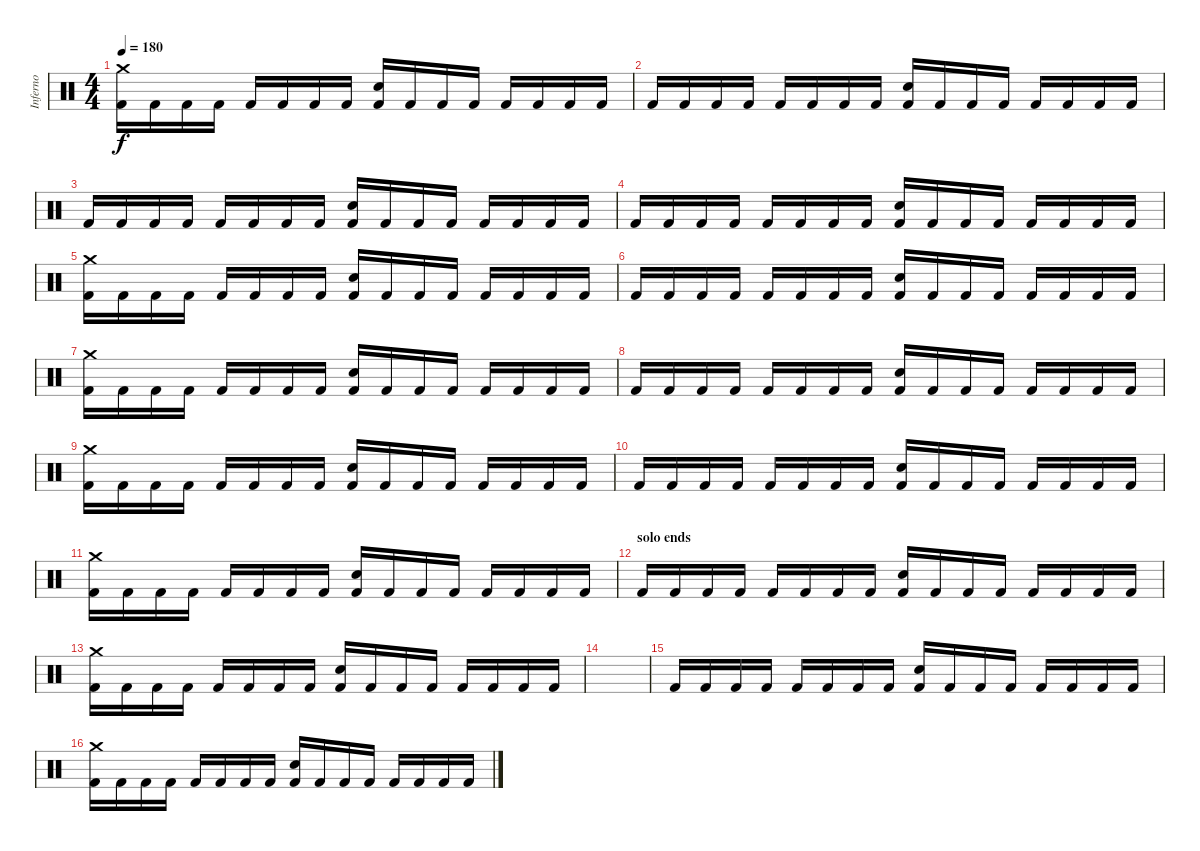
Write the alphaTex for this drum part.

\track ("Inferno" "Inferno") {instrument percussion}
\staff {score}
\articulation defaults
\ts (4 4)
\tempo 180
\clef neutral
\ks c
("Crash medium (hit)" "Kick (hit) 2").16{dy f} "Kick (hit) 2".16 "Kick (hit) 2".16 "Kick (hit) 2".16 "Kick (hit) 2".16 "Kick (hit) 2".16 "Kick (hit) 2".16 "Kick (hit) 2".16 ("Snare (hit) 2" "Kick (hit) 2").16 "Kick (hit) 2".16 "Kick (hit) 2".16 "Kick (hit) 2".16 "Kick (hit) 2".16 "Kick (hit) 2".16 "Kick (hit) 2".16 "Kick (hit) 2".16 |
"Kick (hit) 2".16 "Kick (hit) 2".16 "Kick (hit) 2".16 "Kick (hit) 2".16 "Kick (hit) 2".16 "Kick (hit) 2".16 "Kick (hit) 2".16 "Kick (hit) 2".16 ("Snare (hit) 2" "Kick (hit) 2").16 "Kick (hit) 2".16 "Kick (hit) 2".16 "Kick (hit) 2".16 "Kick (hit) 2".16 "Kick (hit) 2".16 "Kick (hit) 2".16 "Kick (hit) 2".16 |
"Kick (hit) 2".16 "Kick (hit) 2".16 "Kick (hit) 2".16 "Kick (hit) 2".16 "Kick (hit) 2".16 "Kick (hit) 2".16 "Kick (hit) 2".16 "Kick (hit) 2".16 ("Snare (hit) 2" "Kick (hit) 2").16 "Kick (hit) 2".16 "Kick (hit) 2".16 "Kick (hit) 2".16 "Kick (hit) 2".16 "Kick (hit) 2".16 "Kick (hit) 2".16 "Kick (hit) 2".16 |
"Kick (hit) 2".16 "Kick (hit) 2".16 "Kick (hit) 2".16 "Kick (hit) 2".16 "Kick (hit) 2".16 "Kick (hit) 2".16 "Kick (hit) 2".16 "Kick (hit) 2".16 ("Snare (hit) 2" "Kick (hit) 2").16 "Kick (hit) 2".16 "Kick (hit) 2".16 "Kick (hit) 2".16 "Kick (hit) 2".16 "Kick (hit) 2".16 "Kick (hit) 2".16 "Kick (hit) 2".16 |
("Crash medium (hit)" "Kick (hit) 2").16 "Kick (hit) 2".16 "Kick (hit) 2".16 "Kick (hit) 2".16 "Kick (hit) 2".16 "Kick (hit) 2".16 "Kick (hit) 2".16 "Kick (hit) 2".16 ("Snare (hit) 2" "Kick (hit) 2").16 "Kick (hit) 2".16 "Kick (hit) 2".16 "Kick (hit) 2".16 "Kick (hit) 2".16 "Kick (hit) 2".16 "Kick (hit) 2".16 "Kick (hit) 2".16 |
"Kick (hit) 2".16 "Kick (hit) 2".16 "Kick (hit) 2".16 "Kick (hit) 2".16 "Kick (hit) 2".16 "Kick (hit) 2".16 "Kick (hit) 2".16 "Kick (hit) 2".16 ("Snare (hit) 2" "Kick (hit) 2").16 "Kick (hit) 2".16 "Kick (hit) 2".16 "Kick (hit) 2".16 "Kick (hit) 2".16 "Kick (hit) 2".16 "Kick (hit) 2".16 "Kick (hit) 2".16 |
("Crash medium (hit)" "Kick (hit) 2").16 "Kick (hit) 2".16 "Kick (hit) 2".16 "Kick (hit) 2".16 "Kick (hit) 2".16 "Kick (hit) 2".16 "Kick (hit) 2".16 "Kick (hit) 2".16 ("Snare (hit) 2" "Kick (hit) 2").16 "Kick (hit) 2".16 "Kick (hit) 2".16 "Kick (hit) 2".16 "Kick (hit) 2".16 "Kick (hit) 2".16 "Kick (hit) 2".16 "Kick (hit) 2".16 |
"Kick (hit) 2".16 "Kick (hit) 2".16 "Kick (hit) 2".16 "Kick (hit) 2".16 "Kick (hit) 2".16 "Kick (hit) 2".16 "Kick (hit) 2".16 "Kick (hit) 2".16 ("Snare (hit) 2" "Kick (hit) 2").16 "Kick (hit) 2".16 "Kick (hit) 2".16 "Kick (hit) 2".16 "Kick (hit) 2".16 "Kick (hit) 2".16 "Kick (hit) 2".16 "Kick (hit) 2".16 |
("Crash medium (hit)" "Kick (hit) 2").16 "Kick (hit) 2".16 "Kick (hit) 2".16 "Kick (hit) 2".16 "Kick (hit) 2".16 "Kick (hit) 2".16 "Kick (hit) 2".16 "Kick (hit) 2".16 ("Snare (hit) 2" "Kick (hit) 2").16 "Kick (hit) 2".16 "Kick (hit) 2".16 "Kick (hit) 2".16 "Kick (hit) 2".16 "Kick (hit) 2".16 "Kick (hit) 2".16 "Kick (hit) 2".16 |
"Kick (hit) 2".16 "Kick (hit) 2".16 "Kick (hit) 2".16 "Kick (hit) 2".16 "Kick (hit) 2".16 "Kick (hit) 2".16 "Kick (hit) 2".16 "Kick (hit) 2".16 ("Snare (hit) 2" "Kick (hit) 2").16 "Kick (hit) 2".16 "Kick (hit) 2".16 "Kick (hit) 2".16 "Kick (hit) 2".16 "Kick (hit) 2".16 "Kick (hit) 2".16 "Kick (hit) 2".16 |
("Crash medium (hit)" "Kick (hit) 2").16 "Kick (hit) 2".16 "Kick (hit) 2".16 "Kick (hit) 2".16 "Kick (hit) 2".16 "Kick (hit) 2".16 "Kick (hit) 2".16 "Kick (hit) 2".16 ("Snare (hit) 2" "Kick (hit) 2").16 "Kick (hit) 2".16 "Kick (hit) 2".16 "Kick (hit) 2".16 "Kick (hit) 2".16 "Kick (hit) 2".16 "Kick (hit) 2".16 "Kick (hit) 2".16 |
\section ("" "solo ends")
"Kick (hit) 2".16 "Kick (hit) 2".16 "Kick (hit) 2".16 "Kick (hit) 2".16 "Kick (hit) 2".16 "Kick (hit) 2".16 "Kick (hit) 2".16 "Kick (hit) 2".16 ("Snare (hit) 2" "Kick (hit) 2").16 "Kick (hit) 2".16 "Kick (hit) 2".16 "Kick (hit) 2".16 "Kick (hit) 2".16 "Kick (hit) 2".16 "Kick (hit) 2".16 "Kick (hit) 2".16 |
("Crash medium (hit)" "Kick (hit) 2").16 "Kick (hit) 2".16 "Kick (hit) 2".16 "Kick (hit) 2".16 "Kick (hit) 2".16 "Kick (hit) 2".16 "Kick (hit) 2".16 "Kick (hit) 2".16 ("Snare (hit) 2" "Kick (hit) 2").16 "Kick (hit) 2".16 "Kick (hit) 2".16 "Kick (hit) 2".16 "Kick (hit) 2".16 "Kick (hit) 2".16 "Kick (hit) 2".16 "Kick (hit) 2".16 |
|
"Kick (hit) 2".16 "Kick (hit) 2".16 "Kick (hit) 2".16 "Kick (hit) 2".16 "Kick (hit) 2".16 "Kick (hit) 2".16 "Kick (hit) 2".16 "Kick (hit) 2".16 ("Snare (hit) 2" "Kick (hit) 2").16 "Kick (hit) 2".16 "Kick (hit) 2".16 "Kick (hit) 2".16 "Kick (hit) 2".16 "Kick (hit) 2".16 "Kick (hit) 2".16 "Kick (hit) 2".16 |
("Crash medium (hit)" "Kick (hit) 2").16 "Kick (hit) 2".16 "Kick (hit) 2".16 "Kick (hit) 2".16 "Kick (hit) 2".16 "Kick (hit) 2".16 "Kick (hit) 2".16 "Kick (hit) 2".16 ("Snare (hit) 2" "Kick (hit) 2").16 "Kick (hit) 2".16 "Kick (hit) 2".16 "Kick (hit) 2".16 "Kick (hit) 2".16 "Kick (hit) 2".16 "Kick (hit) 2".16 "Kick (hit) 2".16
